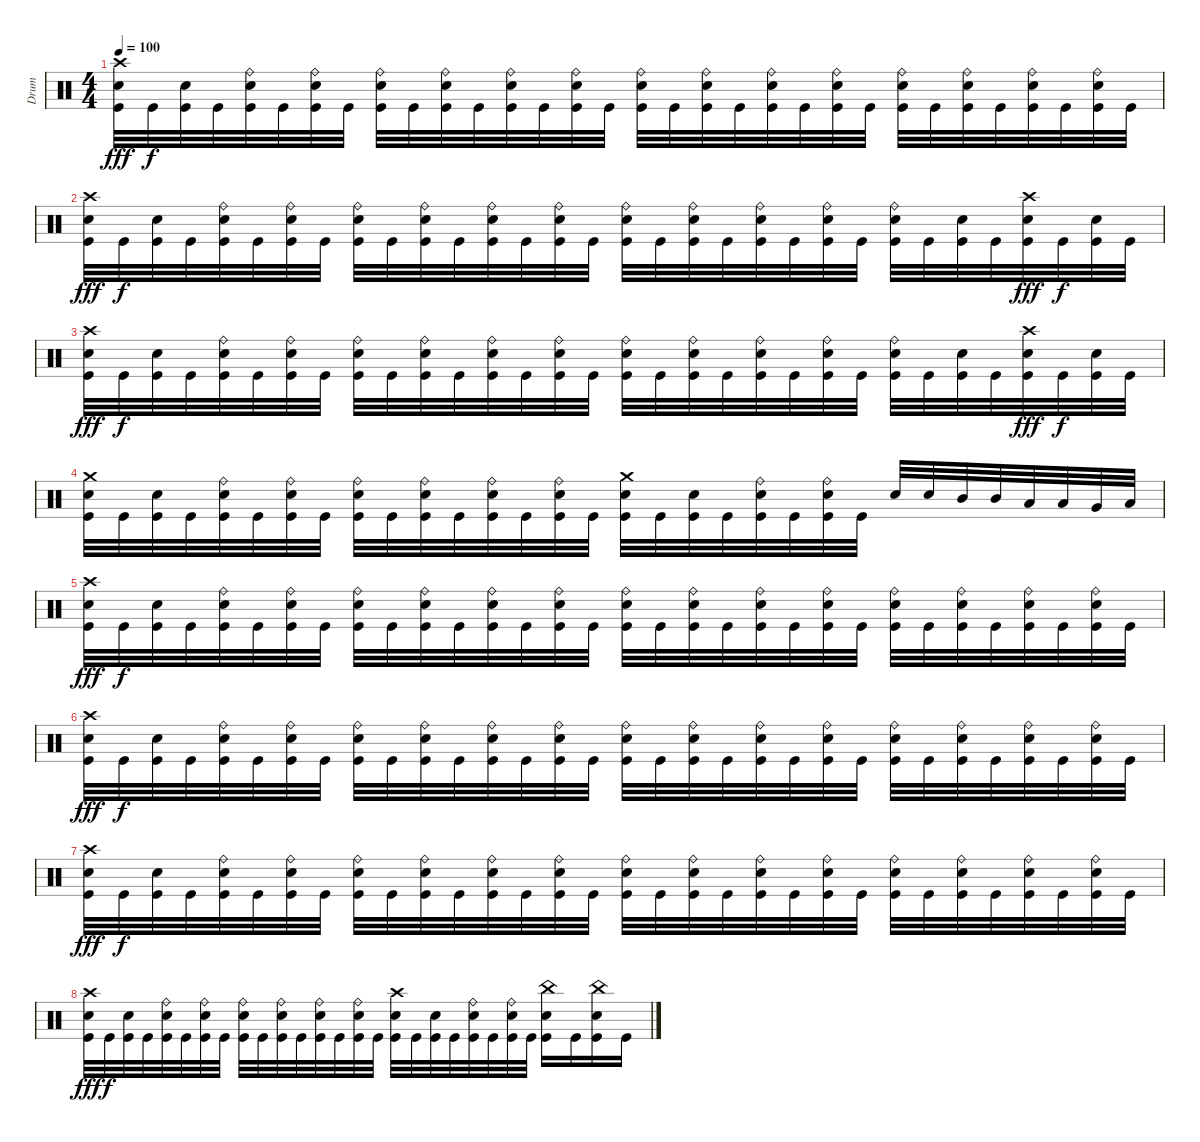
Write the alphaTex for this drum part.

\track ("Drum" "Drum") {instrument percussion}
\staff {score}
\articulation defaults
\ts (4 4)
\tempo 100
\clef neutral
\ks c
("Crash high (hit)" "Electric Snare (hit)" "Kick (hit)").32{dy fff} "Kick (hit)".32{dy f} ("Electric Snare (hit)" "Kick (hit)").32 "Kick (hit)".32 ("Ride (bell)" "Electric Snare (hit)" "Kick (hit)").32 "Kick (hit)".32 ("Ride (bell)" "Electric Snare (hit)" "Kick (hit)").32 "Kick (hit)".32 ("Ride (bell)" "Electric Snare (hit)" "Kick (hit)").32 "Kick (hit)".32 ("Ride (bell)" "Electric Snare (hit)" "Kick (hit)").32 "Kick (hit)".32 ("Ride (bell)" "Electric Snare (hit)" "Kick (hit)").32 "Kick (hit)".32 ("Ride (bell)" "Electric Snare (hit)" "Kick (hit)").32 "Kick (hit)".32 ("Ride (bell)" "Electric Snare (hit)" "Kick (hit)").32 "Kick (hit)".32 ("Ride (bell)" "Electric Snare (hit)" "Kick (hit)").32 "Kick (hit)".32 ("Ride (bell)" "Electric Snare (hit)" "Kick (hit)").32 "Kick (hit)".32 ("Ride (bell)" "Electric Snare (hit)" "Kick (hit)").32 "Kick (hit)".32 ("Ride (bell)" "Electric Snare (hit)" "Kick (hit)").32 "Kick (hit)".32 ("Ride (bell)" "Electric Snare (hit)" "Kick (hit)").32 "Kick (hit)".32 ("Ride (bell)" "Electric Snare (hit)" "Kick (hit)").32 "Kick (hit)".32 ("Ride (bell)" "Electric Snare (hit)" "Kick (hit)").32 "Kick (hit)".32 |
("Crash high (hit)" "Electric Snare (hit)" "Kick (hit)").32{dy fff} "Kick (hit)".32{dy f} ("Electric Snare (hit)" "Kick (hit)").32 "Kick (hit)".32 ("Ride (bell)" "Electric Snare (hit)" "Kick (hit)").32 "Kick (hit)".32 ("Ride (bell)" "Electric Snare (hit)" "Kick (hit)").32 "Kick (hit)".32 ("Ride (bell)" "Electric Snare (hit)" "Kick (hit)").32 "Kick (hit)".32 ("Ride (bell)" "Electric Snare (hit)" "Kick (hit)").32 "Kick (hit)".32 ("Ride (bell)" "Electric Snare (hit)" "Kick (hit)").32 "Kick (hit)".32 ("Ride (bell)" "Electric Snare (hit)" "Kick (hit)").32 "Kick (hit)".32 ("Ride (bell)" "Electric Snare (hit)" "Kick (hit)").32 "Kick (hit)".32 ("Ride (bell)" "Electric Snare (hit)" "Kick (hit)").32 "Kick (hit)".32 ("Ride (bell)" "Electric Snare (hit)" "Kick (hit)").32 "Kick (hit)".32 ("Ride (bell)" "Electric Snare (hit)" "Kick (hit)").32 "Kick (hit)".32 ("Ride (bell)" "Electric Snare (hit)" "Kick (hit)").32 "Kick (hit)".32 ("Electric Snare (hit)" "Kick (hit)").32 "Kick (hit)".32 ("Crash high (hit)" "Electric Snare (hit)" "Kick (hit)").32{dy fff} "Kick (hit)".32{dy f} ("Electric Snare (hit)" "Kick (hit)").32 "Kick (hit)".32 |
("Crash high (hit)" "Electric Snare (hit)" "Kick (hit)").32{dy fff} "Kick (hit)".32{dy f} ("Electric Snare (hit)" "Kick (hit)").32 "Kick (hit)".32 ("Ride (bell)" "Electric Snare (hit)" "Kick (hit)").32 "Kick (hit)".32 ("Ride (bell)" "Electric Snare (hit)" "Kick (hit)").32 "Kick (hit)".32 ("Ride (bell)" "Electric Snare (hit)" "Kick (hit)").32 "Kick (hit)".32 ("Ride (bell)" "Electric Snare (hit)" "Kick (hit)").32 "Kick (hit)".32 ("Ride (bell)" "Electric Snare (hit)" "Kick (hit)").32 "Kick (hit)".32 ("Ride (bell)" "Electric Snare (hit)" "Kick (hit)").32 "Kick (hit)".32 ("Ride (bell)" "Electric Snare (hit)" "Kick (hit)").32 "Kick (hit)".32 ("Ride (bell)" "Electric Snare (hit)" "Kick (hit)").32 "Kick (hit)".32 ("Ride (bell)" "Electric Snare (hit)" "Kick (hit)").32 "Kick (hit)".32 ("Ride (bell)" "Electric Snare (hit)" "Kick (hit)").32 "Kick (hit)".32 ("Ride (bell)" "Electric Snare (hit)" "Kick (hit)").32 "Kick (hit)".32 ("Electric Snare (hit)" "Kick (hit)").32 "Kick (hit)".32 ("Crash high (hit)" "Electric Snare (hit)" "Kick (hit)").32{dy fff} "Kick (hit)".32{dy f} ("Electric Snare (hit)" "Kick (hit)").32 "Kick (hit)".32 |
("Crash medium (hit)" "Electric Snare (hit)" "Kick (hit)").32 "Kick (hit)".32 ("Electric Snare (hit)" "Kick (hit)").32 "Kick (hit)".32 ("Ride (bell)" "Electric Snare (hit)" "Kick (hit)").32 "Kick (hit)".32 ("Ride (bell)" "Electric Snare (hit)" "Kick (hit)").32 "Kick (hit)".32 ("Ride (bell)" "Electric Snare (hit)" "Kick (hit)").32 "Kick (hit)".32 ("Ride (bell)" "Electric Snare (hit)" "Kick (hit)").32 "Kick (hit)".32 ("Ride (bell)" "Electric Snare (hit)" "Kick (hit)").32 "Kick (hit)".32 ("Ride (bell)" "Electric Snare (hit)" "Kick (hit)").32 "Kick (hit)".32 ("Crash medium (hit)" "Electric Snare (hit)" "Kick (hit)").32 "Kick (hit)".32 ("Electric Snare (hit)" "Kick (hit)").32 "Kick (hit)".32 ("Ride (bell)" "Electric Snare (hit)" "Kick (hit)").32 "Kick (hit)".32 ("Ride (bell)" "Electric Snare (hit)" "Kick (hit)").32 "Kick (hit)".32 "Electric Snare (hit)".32 "Electric Snare (hit)".32 "Mid Tom (hit)".32 "Mid Tom (hit)".32 "Low Tom (hit)".32 "Low Tom (hit)".32 "Very Low Tom (hit)".32 "Low Floor Tom (hit)".32 |
("Crash high (hit)" "Electric Snare (hit)" "Kick (hit)").32{dy fff} "Kick (hit)".32{dy f} ("Electric Snare (hit)" "Kick (hit)").32 "Kick (hit)".32 ("Ride (bell)" "Electric Snare (hit)" "Kick (hit)").32 "Kick (hit)".32 ("Ride (bell)" "Electric Snare (hit)" "Kick (hit)").32 "Kick (hit)".32 ("Ride (bell)" "Electric Snare (hit)" "Kick (hit)").32 "Kick (hit)".32 ("Ride (bell)" "Electric Snare (hit)" "Kick (hit)").32 "Kick (hit)".32 ("Ride (bell)" "Electric Snare (hit)" "Kick (hit)").32 "Kick (hit)".32 ("Ride (bell)" "Electric Snare (hit)" "Kick (hit)").32 "Kick (hit)".32 ("Ride (bell)" "Electric Snare (hit)" "Kick (hit)").32 "Kick (hit)".32 ("Ride (bell)" "Electric Snare (hit)" "Kick (hit)").32 "Kick (hit)".32 ("Ride (bell)" "Electric Snare (hit)" "Kick (hit)").32 "Kick (hit)".32 ("Ride (bell)" "Electric Snare (hit)" "Kick (hit)").32 "Kick (hit)".32 ("Ride (bell)" "Electric Snare (hit)" "Kick (hit)").32 "Kick (hit)".32 ("Ride (bell)" "Electric Snare (hit)" "Kick (hit)").32 "Kick (hit)".32 ("Ride (bell)" "Electric Snare (hit)" "Kick (hit)").32 "Kick (hit)".32 ("Ride (bell)" "Electric Snare (hit)" "Kick (hit)").32 "Kick (hit)".32 |
("Crash high (hit)" "Electric Snare (hit)" "Kick (hit)").32{dy fff} "Kick (hit)".32{dy f} ("Electric Snare (hit)" "Kick (hit)").32 "Kick (hit)".32 ("Ride (bell)" "Electric Snare (hit)" "Kick (hit)").32 "Kick (hit)".32 ("Ride (bell)" "Electric Snare (hit)" "Kick (hit)").32 "Kick (hit)".32 ("Ride (bell)" "Electric Snare (hit)" "Kick (hit)").32 "Kick (hit)".32 ("Ride (bell)" "Electric Snare (hit)" "Kick (hit)").32 "Kick (hit)".32 ("Ride (bell)" "Electric Snare (hit)" "Kick (hit)").32 "Kick (hit)".32 ("Ride (bell)" "Electric Snare (hit)" "Kick (hit)").32 "Kick (hit)".32 ("Ride (bell)" "Electric Snare (hit)" "Kick (hit)").32 "Kick (hit)".32 ("Ride (bell)" "Electric Snare (hit)" "Kick (hit)").32 "Kick (hit)".32 ("Ride (bell)" "Electric Snare (hit)" "Kick (hit)").32 "Kick (hit)".32 ("Ride (bell)" "Electric Snare (hit)" "Kick (hit)").32 "Kick (hit)".32 ("Ride (bell)" "Electric Snare (hit)" "Kick (hit)").32 "Kick (hit)".32 ("Ride (bell)" "Electric Snare (hit)" "Kick (hit)").32 "Kick (hit)".32 ("Ride (bell)" "Electric Snare (hit)" "Kick (hit)").32 "Kick (hit)".32 ("Ride (bell)" "Electric Snare (hit)" "Kick (hit)").32 "Kick (hit)".32 |
("Crash high (hit)" "Electric Snare (hit)" "Kick (hit)").32{dy fff} "Kick (hit)".32{dy f} ("Electric Snare (hit)" "Kick (hit)").32 "Kick (hit)".32 ("Ride (bell)" "Electric Snare (hit)" "Kick (hit)").32 "Kick (hit)".32 ("Ride (bell)" "Electric Snare (hit)" "Kick (hit)").32 "Kick (hit)".32 ("Ride (bell)" "Electric Snare (hit)" "Kick (hit)").32 "Kick (hit)".32 ("Ride (bell)" "Electric Snare (hit)" "Kick (hit)").32 "Kick (hit)".32 ("Ride (bell)" "Electric Snare (hit)" "Kick (hit)").32 "Kick (hit)".32 ("Ride (bell)" "Electric Snare (hit)" "Kick (hit)").32 "Kick (hit)".32 ("Ride (bell)" "Electric Snare (hit)" "Kick (hit)").32 "Kick (hit)".32 ("Ride (bell)" "Electric Snare (hit)" "Kick (hit)").32 "Kick (hit)".32 ("Ride (bell)" "Electric Snare (hit)" "Kick (hit)").32 "Kick (hit)".32 ("Ride (bell)" "Electric Snare (hit)" "Kick (hit)").32 "Kick (hit)".32 ("Ride (bell)" "Electric Snare (hit)" "Kick (hit)").32 "Kick (hit)".32 ("Ride (bell)" "Electric Snare (hit)" "Kick (hit)").32 "Kick (hit)".32 ("Ride (bell)" "Electric Snare (hit)" "Kick (hit)").32 "Kick (hit)".32 ("Ride (bell)" "Electric Snare (hit)" "Kick (hit)").32 "Kick (hit)".32 |
("Crash high (hit)" "Electric Snare (hit)" "Kick (hit)").32{dy fff} "Kick (hit)".32{dy f} ("Electric Snare (hit)" "Kick (hit)").32 "Kick (hit)".32 ("Ride (bell)" "Electric Snare (hit)" "Kick (hit)").32 "Kick (hit)".32 ("Ride (bell)" "Electric Snare (hit)" "Kick (hit)").32 "Kick (hit)".32 ("Ride (bell)" "Electric Snare (hit)" "Kick (hit)").32 "Kick (hit)".32 ("Ride (bell)" "Electric Snare (hit)" "Kick (hit)").32 "Kick (hit)".32 ("Ride (bell)" "Electric Snare (hit)" "Kick (hit)").32 "Kick (hit)".32 ("Ride (bell)" "Electric Snare (hit)" "Kick (hit)").32 "Kick (hit)".32 ("Crash high (hit)" "Electric Snare (hit)" "Kick (hit)").32 "Kick (hit)".32 ("Electric Snare (hit)" "Kick (hit)").32 "Kick (hit)".32 ("Ride (bell)" "Electric Snare (hit)" "Kick (hit)").32 "Kick (hit)".32 ("Ride (bell)" "Electric Snare (hit)" "Kick (hit)").32 "Kick (hit)".32 ("China (hit)" "Electric Snare (hit)" "Kick (hit)").16 "Kick (hit)".16 ("China (hit)" "Electric Snare (hit)" "Kick (hit)").16 "Kick (hit)".16
